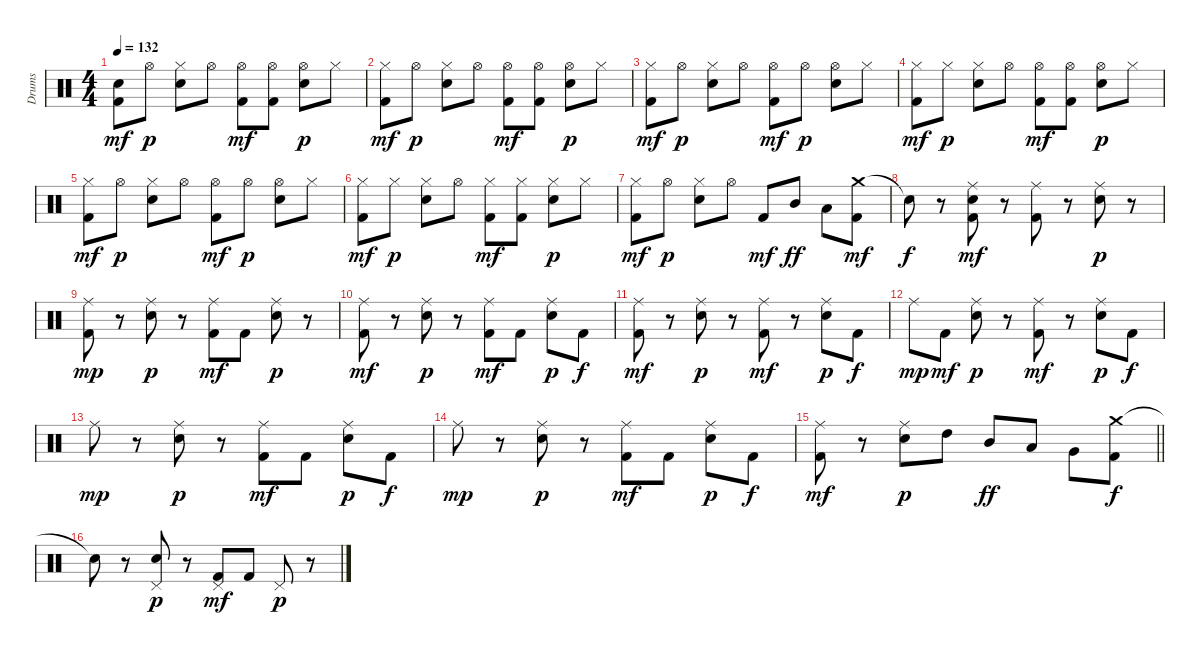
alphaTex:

\track ("Drums" "Drums") {instrument percussion}
\staff {score}
\articulation defaults
\ts (4 4)
\tempo 132
\clef neutral
\ks c
("Snare (hit)" "Kick (hit) 2").8{dy mf} "Hi-Hat (open)".8{dy p} ("Hi-Hat (closed)" "Snare (hit) 2").8 "Hi-Hat (open)".8 ("Hi-Hat (open)" "Kick (hit) 2").8{dy mf} ("Hi-Hat (open)" "Kick (hit) 2").8 ("Hi-Hat (open)" "Snare (hit) 2").8{dy p} "Hi-Hat (closed)".8 |
("Hi-Hat (closed)" "Kick (hit) 2").8{dy mf} "Hi-Hat (open)".8{dy p} ("Hi-Hat (closed)" "Snare (hit) 2").8 "Hi-Hat (open)".8 ("Hi-Hat (open)" "Kick (hit) 2").8{dy mf} ("Hi-Hat (open)" "Kick (hit) 2").8 ("Hi-Hat (open)" "Snare (hit) 2").8{dy p} "Hi-Hat (closed)".8 |
("Hi-Hat (closed)" "Kick (hit) 2").8{dy mf} "Hi-Hat (open)".8{dy p} ("Hi-Hat (closed)" "Snare (hit) 2").8 "Hi-Hat (open)".8 ("Hi-Hat (open)" "Kick (hit) 2").8{dy mf} "Hi-Hat (open)".8{dy p} ("Hi-Hat (open)" "Snare (hit) 2").8 "Hi-Hat (closed)".8 |
("Hi-Hat (closed)" "Kick (hit) 2").8{dy mf} "Hi-Hat (closed)".8{dy p} ("Hi-Hat (closed)" "Snare (hit) 2").8 "Hi-Hat (open)".8 ("Hi-Hat (open)" "Kick (hit) 2").8{dy mf} ("Hi-Hat (open)" "Kick (hit) 2").8 ("Hi-Hat (open)" "Snare (hit) 2").8{dy p} "Hi-Hat (closed)".8 |
("Hi-Hat (closed)" "Kick (hit) 2").8{dy mf} "Hi-Hat (open)".8{dy p} ("Hi-Hat (closed)" "Snare (hit) 2").8 "Hi-Hat (open)".8 ("Hi-Hat (open)" "Kick (hit) 2").8{dy mf} "Hi-Hat (open)".8{dy p} ("Hi-Hat (open)" "Snare (hit) 2").8 "Hi-Hat (closed)".8 |
("Hi-Hat (closed)" "Kick (hit) 2").8{dy mf} "Hi-Hat (closed)".8{dy p} ("Hi-Hat (closed)" "Snare (hit) 2").8 "Hi-Hat (open)".8 ("Hi-Hat (closed)" "Kick (hit) 2").8{dy mf} ("Hi-Hat (closed)" "Kick (hit) 2").8 ("Hi-Hat (closed)" "Snare (hit) 2").8{dy p} "Hi-Hat (closed)".8 |
("Hi-Hat (closed)" "Kick (hit) 2").8{dy mf} "Hi-Hat (open)".8{dy p} ("Hi-Hat (closed)" "Snare (hit) 2").8 "Hi-Hat (open)".8 "Kick (hit) 2".8{dy mf} "Mid Tom (hit)".8{dy ff} "Low Tom (hit)".8 ("Crash medium (hit)" "Kick (hit) 2").8{dy mf} |
"Snare (hit)"{t}.8{dy f} r.8 ("Ride (middle)" "Snare (hit) 2" "Kick (hit) 2").8{dy mf} r.8 ("Ride (middle)" "Kick (hit) 2").8 r.8 ("Ride (middle)" "Snare (hit) 2").8{dy p} r.8 |
("Ride (middle)" "Kick (hit) 2").8{dy mp} r.8 ("Ride (middle)" "Snare (hit) 2").8{dy p} r.8 ("Ride (middle)" "Kick (hit) 2").8{dy mf} "Kick (hit) 2".8 ("Ride (middle)" "Snare (hit) 2").8{dy p} r.8 |
("Ride (middle)" "Kick (hit) 2").8{dy mf} r.8 ("Ride (middle)" "Snare (hit) 2").8{dy p} r.8 ("Ride (middle)" "Kick (hit) 2").8{dy mf} "Kick (hit) 2".8 ("Ride (middle)" "Snare (hit) 2").8{dy p} "Kick (hit) 2".8{dy f} |
("Ride (middle)" "Kick (hit) 2").8{dy mf} r.8 ("Ride (middle)" "Snare (hit) 2").8{dy p} r.8 ("Ride (middle)" "Kick (hit) 2").8{dy mf} r.8 ("Ride (middle)" "Snare (hit) 2").8{dy p} "Kick (hit) 2".8{dy f} |
"Ride (middle)".8{dy mp} "Kick (hit) 2".8{dy mf} ("Ride (middle)" "Snare (hit) 2").8{dy p} r.8 ("Ride (middle)" "Kick (hit) 2").8{dy mf} r.8 ("Ride (middle)" "Snare (hit) 2").8{dy p} "Kick (hit) 2".8{dy f} |
"Ride (middle)".8{dy mp} r.8 ("Ride (middle)" "Snare (hit) 2").8{dy p} r.8 ("Ride (middle)" "Kick (hit) 2").8{dy mf} "Kick (hit) 2".8 ("Ride (middle)" "Snare (hit) 2").8{dy p} "Kick (hit) 2".8{dy f} |
"Ride (middle)".8{dy mp} r.8 ("Ride (middle)" "Snare (hit) 2").8{dy p} r.8 ("Ride (middle)" "Kick (hit) 2").8{dy mf} "Kick (hit) 2".8 ("Ride (middle)" "Snare (hit) 2").8{dy p} "Kick (hit) 2".8{dy f} |
\barLineRight lightlight
("Ride (middle)" "Kick (hit) 2").8{dy mf} r.8 ("Ride (middle)" "Snare (hit) 2").8{dy p} "High Tom (hit)".8 "Mid Tom (hit)".8{dy ff} "Low Tom (hit)".8 "Very Low Tom (hit)".8 ("Crash medium (hit)" "Kick (hit) 2").8{dy f} |
\section ("" "")
"Snare (hit)"{t}.8 r.8 ("Pedal Hi-Hat (hit)" "Snare (hit) 2").8{dy p} r.8 ("Pedal Hi-Hat (hit)" "Kick (hit) 2").8{dy mf} "Kick (hit) 2".8 "Pedal Hi-Hat (hit)".8{dy p} r.8
